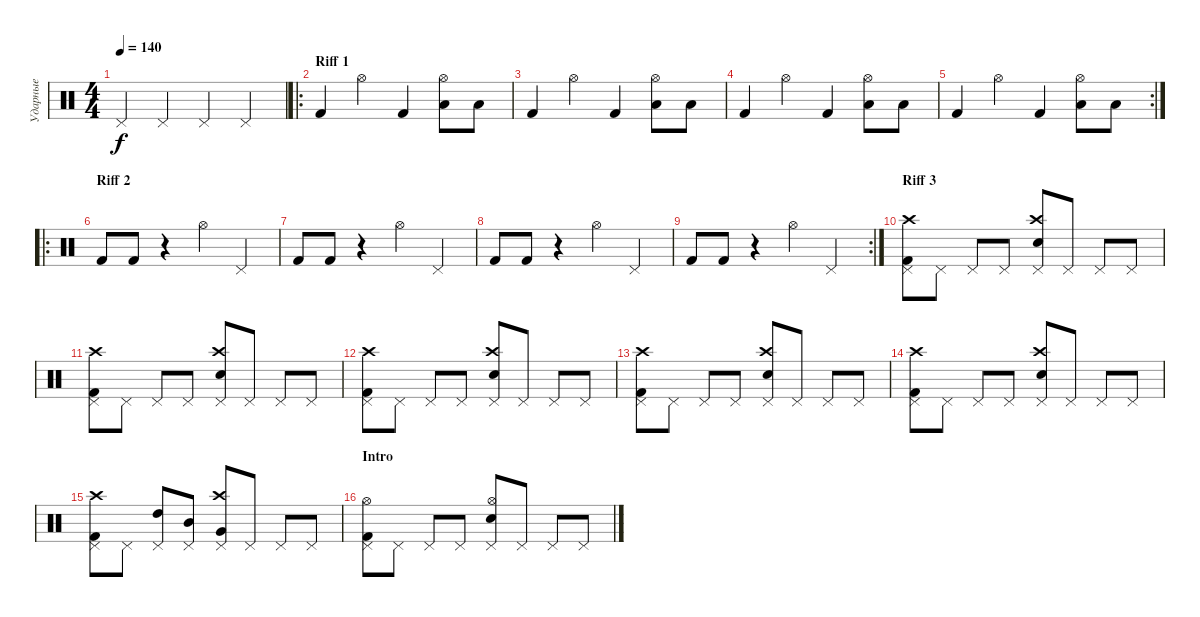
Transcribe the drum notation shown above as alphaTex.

\track ("Ударные" "Ударные") {instrument percussion}
\staff {score}
\articulation defaults
\ts (4 4)
\tempo 140
\clef neutral
\ks c "Pedal Hi-Hat (hit)".4{dy f} "Pedal Hi-Hat (hit)".4 "Pedal Hi-Hat (hit)".4 "Pedal Hi-Hat (hit)".4
|
\ro
\section ("" "Riff 1")
"Kick (hit) 2".4 "Hi-Hat (open)".4 "Kick (hit) 2".4 ("Low Tom (hit)" "Hi-Hat (open)").8 "Low Tom (hit)".8 |
"Kick (hit) 2".4 "Hi-Hat (open)".4 "Kick (hit) 2".4 ("Low Tom (hit)" "Hi-Hat (open)").8 "Low Tom (hit)".8 |
"Kick (hit) 2".4 "Hi-Hat (open)".4 "Kick (hit) 2".4 ("Low Tom (hit)" "Hi-Hat (open)").8 "Low Tom (hit)".8 |
\rc 2 "Kick (hit) 2".4 "Hi-Hat (open)".4 "Kick (hit) 2".4
("Low Tom (hit)" "Hi-Hat (open)").8 "Low Tom (hit)".8 |
\ro
\section ("" "Riff 2")
"Kick (hit) 2".8 "Kick (hit) 2".8 r.4 "Hi-Hat (open)".4 "Pedal Hi-Hat (hit)".4 |
"Kick (hit) 2".8 "Kick (hit) 2".8 r.4 "Hi-Hat (open)".4 "Pedal Hi-Hat (hit)".4 |
"Kick (hit) 2".8 "Kick (hit) 2".8 r.4 "Hi-Hat (open)".4 "Pedal Hi-Hat (hit)".4 |
\rc 2 "Kick (hit) 2".8 "Kick (hit) 2".8
r.4 "Hi-Hat (open)".4 "Pedal Hi-Hat (hit)".4 |
\section ("" "Riff 3")
("Kick (hit) 2" "Pedal Hi-Hat (hit)" "Crash high (hit)").8 "Pedal Hi-Hat (hit)".8 "Pedal Hi-Hat (hit)".8 "Pedal Hi-Hat (hit)".8 ("Snare (hit) 2" "Pedal Hi-Hat (hit)" "Crash high (hit)").8 "Pedal Hi-Hat (hit)".8 "Pedal Hi-Hat (hit)".8 "Pedal Hi-Hat (hit)".8 |
("Kick (hit) 2" "Pedal Hi-Hat (hit)" "Crash high (hit)").8 "Pedal Hi-Hat (hit)".8 "Pedal Hi-Hat (hit)".8 "Pedal Hi-Hat (hit)".8 ("Snare (hit) 2" "Pedal Hi-Hat (hit)" "Crash high (hit)").8 "Pedal Hi-Hat (hit)".8 "Pedal Hi-Hat (hit)".8 "Pedal Hi-Hat (hit)".8 |
("Kick (hit) 2" "Pedal Hi-Hat (hit)" "Crash high (hit)").8 "Pedal Hi-Hat (hit)".8 "Pedal Hi-Hat (hit)".8 "Pedal Hi-Hat (hit)".8 ("Snare (hit) 2" "Pedal Hi-Hat (hit)" "Crash high (hit)").8 "Pedal Hi-Hat (hit)".8 "Pedal Hi-Hat (hit)".8 "Pedal Hi-Hat (hit)".8 |
("Kick (hit) 2" "Pedal Hi-Hat (hit)" "Crash high (hit)").8 "Pedal Hi-Hat (hit)".8 "Pedal Hi-Hat (hit)".8 "Pedal Hi-Hat (hit)".8 ("Snare (hit) 2" "Pedal Hi-Hat (hit)" "Crash high (hit)").8 "Pedal Hi-Hat (hit)".8 "Pedal Hi-Hat (hit)".8 "Pedal Hi-Hat (hit)".8 |
("Kick (hit) 2" "Pedal Hi-Hat (hit)" "Crash high (hit)").8 "Pedal Hi-Hat (hit)".8 "Pedal Hi-Hat (hit)".8 "Pedal Hi-Hat (hit)".8 ("Snare (hit) 2" "Pedal Hi-Hat (hit)" "Crash high (hit)").8 "Pedal Hi-Hat (hit)".8 "Pedal Hi-Hat (hit)".8 "Pedal Hi-Hat (hit)".8 |
("Kick (hit) 2" "Pedal Hi-Hat (hit)" "Crash high (hit)").8 "Pedal Hi-Hat (hit)".8 ("High Tom (hit)" "Pedal Hi-Hat (hit)").8 ("Mid Tom (hit)" "Pedal Hi-Hat (hit)").8 ("Very Low Tom (hit)" "Pedal Hi-Hat (hit)" "Crash high (hit)").8 "Pedal Hi-Hat (hit)".8 "Pedal Hi-Hat (hit)".8 "Pedal Hi-Hat (hit)".8 |
\section ("" "Intro")
("Kick (hit) 2" "Pedal Hi-Hat (hit)" "Hi-Hat (open)").8 "Pedal Hi-Hat (hit)".8 "Pedal Hi-Hat (hit)".8 "Pedal Hi-Hat (hit)".8 ("Snare (hit) 2" "Pedal Hi-Hat (hit)" "Hi-Hat (open)").8 "Pedal Hi-Hat (hit)".8 "Pedal Hi-Hat (hit)".8 "Pedal Hi-Hat (hit)".8
